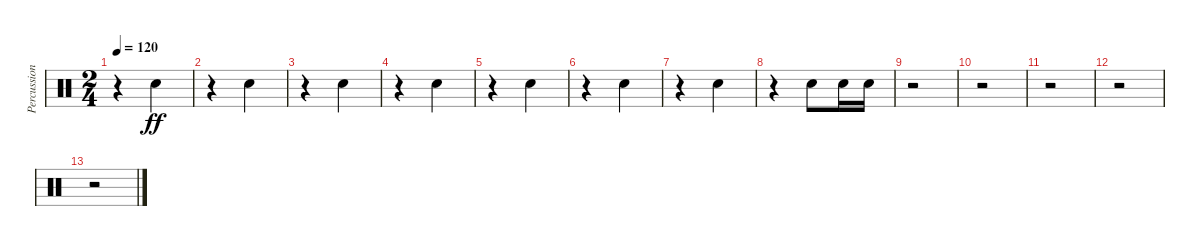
\track ("Percussion" "Percussion") {instrument percussion}
\staff {score}
\articulation defaults
\ts (2 4)
\tempo 120
\clef neutral
\ks c
r.4{dy ff} "Snare (hit) 2".4 |
r.4 "Snare (hit) 2".4 |
r.4 "Snare (hit) 2".4 |
r.4 "Snare (hit) 2".4 |
r.4 "Snare (hit) 2".4 |
r.4 "Snare (hit) 2".4 |
r.4 "Snare (hit) 2".4 |
r.4 "Snare (hit) 2".8 "Snare (hit) 2".16 "Snare (hit) 2".16 |
r.2 |
r.2 |
r.2 |
r.2 |
r.2
